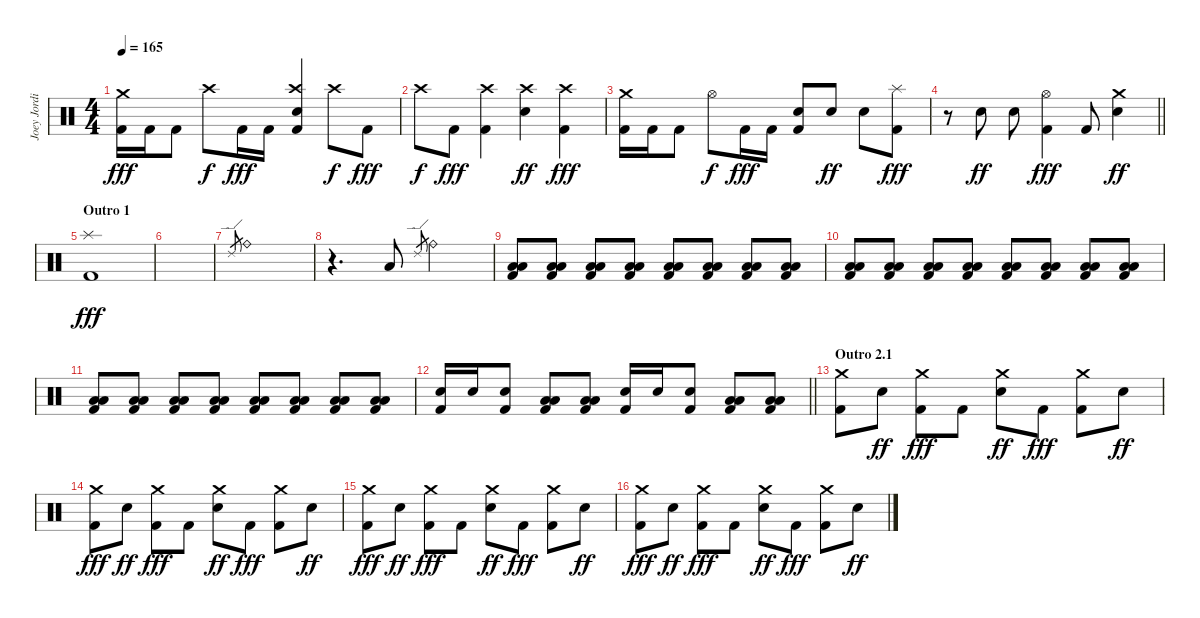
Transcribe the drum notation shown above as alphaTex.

\track ("Joey Jordison" "Joey Jordi") {instrument percussion}
\staff {score}
\articulation defaults
\ts (4 4)
\tempo 165
\clef neutral
\ks c
("Crash medium (hit)" "Kick (hit) 2").16{dy fff} "Kick (hit) 2".16 "Kick (hit) 2".8 "Crash high (hit)".8{dy f} "Kick (hit) 2".16{dy fff} "Kick (hit) 2".16 ("Crash high (hit)" "Electric Snare (hit)" "Kick (hit) 2").4 "Crash high (hit)".8{dy f} "Kick (hit) 2".8{dy fff} |
"Crash high (hit)".8{dy f} "Kick (hit) 2".8{dy fff} ("Crash high (hit)" "Kick (hit) 2").4 ("Crash high (hit)" "Electric Snare (hit)").4{dy ff} ("Crash high (hit)" "Kick (hit) 2").4{dy fff} |
("Crash medium (hit)" "Kick (hit) 2").16 "Kick (hit) 2".16 "Kick (hit) 2".8 "Hi-Hat (open)".8{dy f} "Kick (hit) 2".16{dy fff} "Kick (hit) 2".16 ("Electric Snare (hit)" "Kick (hit) 2").8 "Electric Snare (hit)".8{dy ff} "Electric Snare (hit)".8 ("Splash (hit)" "Kick (hit) 2").8{dy fff} |
\barLineRight lightlight
r.8 "Electric Snare (hit)".8{dy ff} "Electric Snare (hit)".8 ("Hi-Hat (open)" "Kick (hit) 2").4{dy fff} "Kick (hit) 2".8 ("Crash medium (hit)" "Electric Snare (hit)").4{dy ff} |
\section ("" "Outro 1")
("Splash (hit)" "Kick (hit) 2").1{dy fff} |
|
"Ride (edge) 2".8{gr} "Ride (bell)".1 |
r.4{d} "Low Floor Tom (hit)".8 "Ride (edge) 2".8{gr} "Ride (bell)".2 |
("Low Tom (hit)" "Low Floor Tom (hit)" "Kick (hit) 2").8 ("Low Tom (hit)" "Low Floor Tom (hit)" "Kick (hit) 2").8 ("Low Tom (hit)" "Low Floor Tom (hit)" "Kick (hit) 2").8 ("Low Tom (hit)" "Low Floor Tom (hit)" "Kick (hit) 2").8 ("Low Tom (hit)" "Low Floor Tom (hit)" "Kick (hit) 2").8 ("Low Tom (hit)" "Low Floor Tom (hit)" "Kick (hit) 2").8 ("Low Tom (hit)" "Low Floor Tom (hit)" "Kick (hit) 2").8 ("Low Tom (hit)" "Low Floor Tom (hit)" "Kick (hit) 2").8 |
("Low Tom (hit)" "Low Floor Tom (hit)" "Kick (hit) 2").8 ("Low Tom (hit)" "Low Floor Tom (hit)" "Kick (hit) 2").8 ("Low Tom (hit)" "Low Floor Tom (hit)" "Kick (hit) 2").8 ("Low Tom (hit)" "Low Floor Tom (hit)" "Kick (hit) 2").8 ("Low Tom (hit)" "Low Floor Tom (hit)" "Kick (hit) 2").8 ("Low Tom (hit)" "Low Floor Tom (hit)" "Kick (hit) 2").8 ("Low Tom (hit)" "Low Floor Tom (hit)" "Kick (hit) 2").8 ("Low Tom (hit)" "Low Floor Tom (hit)" "Kick (hit) 2").8 |
("Low Tom (hit)" "Low Floor Tom (hit)" "Kick (hit) 2").8 ("Low Tom (hit)" "Low Floor Tom (hit)" "Kick (hit) 2").8 ("Low Tom (hit)" "Low Floor Tom (hit)" "Kick (hit) 2").8 ("Low Tom (hit)" "Low Floor Tom (hit)" "Kick (hit) 2").8 ("Low Tom (hit)" "Low Floor Tom (hit)" "Kick (hit) 2").8 ("Low Tom (hit)" "Low Floor Tom (hit)" "Kick (hit) 2").8 ("Low Tom (hit)" "Low Floor Tom (hit)" "Kick (hit) 2").8 ("Low Tom (hit)" "Low Floor Tom (hit)" "Kick (hit) 2").8 |
\barLineRight lightlight
("Electric Snare (hit)" "Kick (hit) 2").16 "Electric Snare (hit)".16 ("Electric Snare (hit)" "Kick (hit) 2").8 ("Low Tom (hit)" "Low Floor Tom (hit)" "Kick (hit) 2").8 ("Low Tom (hit)" "Low Floor Tom (hit)" "Kick (hit) 2").8 ("Electric Snare (hit)" "Kick (hit) 2").16 "Electric Snare (hit)".16 ("Electric Snare (hit)" "Kick (hit) 2").8 ("Low Tom (hit)" "Low Floor Tom (hit)" "Kick (hit) 2").8 ("Low Tom (hit)" "Low Floor Tom (hit)" "Kick (hit) 2").8 |
\section ("" "Outro 2.1")
("Crash medium (hit)" "Kick (hit) 2").8 "Electric Snare (hit)".8{dy ff} ("Crash medium (hit)" "Kick (hit) 2").8{dy fff} "Kick (hit) 2".8 ("Crash medium (hit)" "Electric Snare (hit)").8{dy ff} "Kick (hit) 2".8{dy fff} ("Crash medium (hit)" "Kick (hit) 2").8 "Electric Snare (hit)".8{dy ff} |
("Crash medium (hit)" "Kick (hit) 2").8{dy fff} "Electric Snare (hit)".8{dy ff} ("Crash medium (hit)" "Kick (hit) 2").8{dy fff} "Kick (hit) 2".8 ("Crash medium (hit)" "Electric Snare (hit)").8{dy ff} "Kick (hit) 2".8{dy fff} ("Crash medium (hit)" "Kick (hit) 2").8 "Electric Snare (hit)".8{dy ff} |
("Crash medium (hit)" "Kick (hit) 2").8{dy fff} "Electric Snare (hit)".8{dy ff} ("Crash medium (hit)" "Kick (hit) 2").8{dy fff} "Kick (hit) 2".8 ("Crash medium (hit)" "Electric Snare (hit)").8{dy ff} "Kick (hit) 2".8{dy fff} ("Crash medium (hit)" "Kick (hit) 2").8 "Electric Snare (hit)".8{dy ff} |
("Crash medium (hit)" "Kick (hit) 2").8{dy fff} "Electric Snare (hit)".8{dy ff} ("Crash medium (hit)" "Kick (hit) 2").8{dy fff} "Kick (hit) 2".8 ("Crash medium (hit)" "Electric Snare (hit)").8{dy ff} "Kick (hit) 2".8{dy fff} ("Crash medium (hit)" "Kick (hit) 2").8 "Electric Snare (hit)".8{dy ff}
